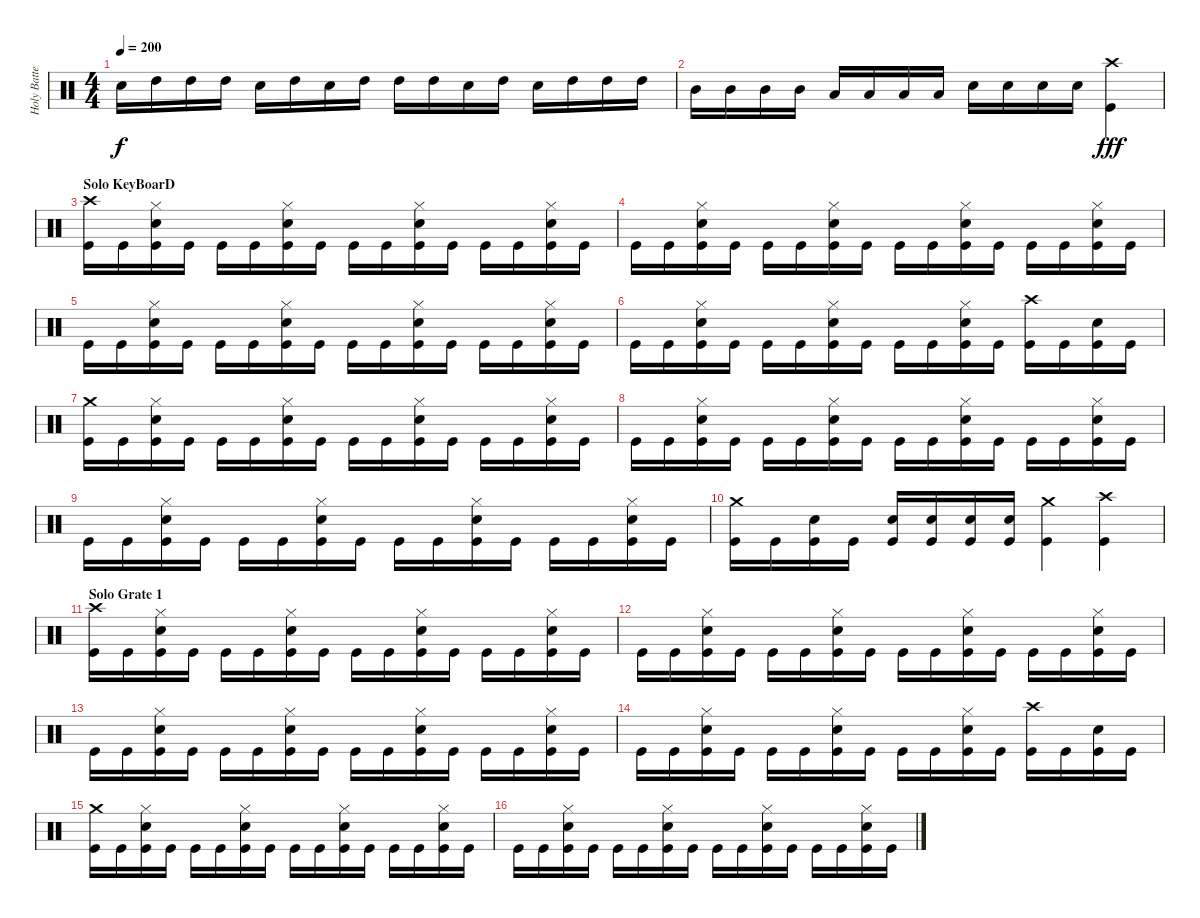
\track ("Holy Batteur" "Holy Batte") {instrument percussion}
\staff {score}
\articulation defaults
\ts (4 4)
\tempo 200
\clef neutral
\ks c "Electric Snare (hit)".16{dy f} "High Tom (hit)".16 "High Tom (hit)".16 "High Tom (hit)".16 "Electric Snare (hit)".16 "High Tom (hit)".16 "Electric Snare (hit)".16 "High Tom (hit)".16 "High Tom (hit)".16 "High Tom (hit)".16 "Electric Snare (hit)".16 "High Tom (hit)".16 "Electric Snare (hit)".16 "High Tom (hit)".16 "High Tom (hit)".16 "High Tom (hit)".16
|
"Mid Tom (hit)".16 "Mid Tom (hit)".16 "Mid Tom (hit)".16 "Mid Tom (hit)".16 "Low Tom (hit)".16 "Low Tom (hit)".16 "Low Tom (hit)".16 "Low Tom (hit)".16 "Electric Snare (hit)".16 "Electric Snare (hit)".16 "Electric Snare (hit)".16 "Electric Snare (hit)".16 ("Crash high (hit)" "Kick (hit)").4{dy fff} |
\section ("" "Solo KeyBoarD")
("Crash high (hit)" "Kick (hit)").16 "Kick (hit)".16 ("Hi-Hat (closed)" "Electric Snare (hit)" "Kick (hit)").16 "Kick (hit)".16 "Kick (hit)".16 "Kick (hit)".16 ("Hi-Hat (closed)" "Electric Snare (hit)" "Kick (hit)").16 "Kick (hit)".16 "Kick (hit)".16 "Kick (hit)".16 ("Hi-Hat (closed)" "Electric Snare (hit)" "Kick (hit)").16 "Kick (hit)".16 "Kick (hit)".16 "Kick (hit)".16 ("Hi-Hat (closed)" "Electric Snare (hit)" "Kick (hit)").16 "Kick (hit)".16 |
"Kick (hit)".16 "Kick (hit)".16 ("Hi-Hat (closed)" "Electric Snare (hit)" "Kick (hit)").16 "Kick (hit)".16 "Kick (hit)".16 "Kick (hit)".16 ("Hi-Hat (closed)" "Electric Snare (hit)" "Kick (hit)").16 "Kick (hit)".16 "Kick (hit)".16 "Kick (hit)".16 ("Hi-Hat (closed)" "Electric Snare (hit)" "Kick (hit)").16 "Kick (hit)".16 "Kick (hit)".16 "Kick (hit)".16 ("Hi-Hat (closed)" "Electric Snare (hit)" "Kick (hit)").16 "Kick (hit)".16 |
"Kick (hit)".16 "Kick (hit)".16 ("Hi-Hat (closed)" "Electric Snare (hit)" "Kick (hit)").16 "Kick (hit)".16 "Kick (hit)".16 "Kick (hit)".16 ("Hi-Hat (closed)" "Electric Snare (hit)" "Kick (hit)").16 "Kick (hit)".16 "Kick (hit)".16 "Kick (hit)".16 ("Hi-Hat (closed)" "Electric Snare (hit)" "Kick (hit)").16 "Kick (hit)".16 "Kick (hit)".16 "Kick (hit)".16 ("Hi-Hat (closed)" "Electric Snare (hit)" "Kick (hit)").16 "Kick (hit)".16 |
"Kick (hit)".16 "Kick (hit)".16 ("Hi-Hat (closed)" "Electric Snare (hit)" "Kick (hit)").16 "Kick (hit)".16 "Kick (hit)".16 "Kick (hit)".16 ("Hi-Hat (closed)" "Electric Snare (hit)" "Kick (hit)").16 "Kick (hit)".16 "Kick (hit)".16 "Kick (hit)".16 ("Hi-Hat (closed)" "Electric Snare (hit)" "Kick (hit)").16 "Kick (hit)".16 ("Crash high (hit)" "Kick (hit)").16 "Kick (hit)".16 ("Electric Snare (hit)" "Kick (hit)").16 "Kick (hit)".16 |
("Crash medium (hit)" "Kick (hit)").16 "Kick (hit)".16 ("Hi-Hat (closed)" "Electric Snare (hit)" "Kick (hit)").16 "Kick (hit)".16 "Kick (hit)".16 "Kick (hit)".16 ("Hi-Hat (closed)" "Electric Snare (hit)" "Kick (hit)").16 "Kick (hit)".16 "Kick (hit)".16 "Kick (hit)".16 ("Hi-Hat (closed)" "Electric Snare (hit)" "Kick (hit)").16 "Kick (hit)".16 "Kick (hit)".16 "Kick (hit)".16 ("Hi-Hat (closed)" "Electric Snare (hit)" "Kick (hit)").16 "Kick (hit)".16 |
"Kick (hit)".16 "Kick (hit)".16 ("Hi-Hat (closed)" "Electric Snare (hit)" "Kick (hit)").16 "Kick (hit)".16 "Kick (hit)".16 "Kick (hit)".16 ("Hi-Hat (closed)" "Electric Snare (hit)" "Kick (hit)").16 "Kick (hit)".16 "Kick (hit)".16 "Kick (hit)".16 ("Hi-Hat (closed)" "Electric Snare (hit)" "Kick (hit)").16 "Kick (hit)".16 "Kick (hit)".16 "Kick (hit)".16 ("Hi-Hat (closed)" "Electric Snare (hit)" "Kick (hit)").16 "Kick (hit)".16 |
"Kick (hit)".16 "Kick (hit)".16 ("Hi-Hat (closed)" "Electric Snare (hit)" "Kick (hit)").16 "Kick (hit)".16 "Kick (hit)".16 "Kick (hit)".16 ("Hi-Hat (closed)" "Electric Snare (hit)" "Kick (hit)").16 "Kick (hit)".16 "Kick (hit)".16 "Kick (hit)".16 ("Hi-Hat (closed)" "Electric Snare (hit)" "Kick (hit)").16 "Kick (hit)".16 "Kick (hit)".16 "Kick (hit)".16 ("Hi-Hat (closed)" "Electric Snare (hit)" "Kick (hit)").16 "Kick (hit)".16 |
("Crash medium (hit)" "Kick (hit)").16 "Kick (hit)".16 ("Electric Snare (hit)" "Kick (hit)").16 "Kick (hit)".16 ("Electric Snare (hit)" "Kick (hit)").16 ("Electric Snare (hit)" "Kick (hit)").16 ("Electric Snare (hit)" "Kick (hit)").16 ("Electric Snare (hit)" "Kick (hit)").16 ("Crash medium (hit)" "Kick (hit)").4 ("Crash high (hit)" "Kick (hit)").4 |
\section ("" "Solo Grate 1")
("Crash high (hit)" "Kick (hit)").16 "Kick (hit)".16 ("Hi-Hat (closed)" "Electric Snare (hit)" "Kick (hit)").16 "Kick (hit)".16 "Kick (hit)".16 "Kick (hit)".16 ("Hi-Hat (closed)" "Electric Snare (hit)" "Kick (hit)").16 "Kick (hit)".16 "Kick (hit)".16 "Kick (hit)".16 ("Hi-Hat (closed)" "Electric Snare (hit)" "Kick (hit)").16 "Kick (hit)".16 "Kick (hit)".16 "Kick (hit)".16 ("Hi-Hat (closed)" "Electric Snare (hit)" "Kick (hit)").16 "Kick (hit)".16 |
"Kick (hit)".16 "Kick (hit)".16 ("Hi-Hat (closed)" "Electric Snare (hit)" "Kick (hit)").16 "Kick (hit)".16 "Kick (hit)".16 "Kick (hit)".16 ("Hi-Hat (closed)" "Electric Snare (hit)" "Kick (hit)").16 "Kick (hit)".16 "Kick (hit)".16 "Kick (hit)".16 ("Hi-Hat (closed)" "Electric Snare (hit)" "Kick (hit)").16 "Kick (hit)".16 "Kick (hit)".16 "Kick (hit)".16 ("Hi-Hat (closed)" "Electric Snare (hit)" "Kick (hit)").16 "Kick (hit)".16 |
"Kick (hit)".16 "Kick (hit)".16 ("Hi-Hat (closed)" "Electric Snare (hit)" "Kick (hit)").16 "Kick (hit)".16 "Kick (hit)".16 "Kick (hit)".16 ("Hi-Hat (closed)" "Electric Snare (hit)" "Kick (hit)").16 "Kick (hit)".16 "Kick (hit)".16 "Kick (hit)".16 ("Hi-Hat (closed)" "Electric Snare (hit)" "Kick (hit)").16 "Kick (hit)".16 "Kick (hit)".16 "Kick (hit)".16 ("Hi-Hat (closed)" "Electric Snare (hit)" "Kick (hit)").16 "Kick (hit)".16 |
"Kick (hit)".16 "Kick (hit)".16 ("Hi-Hat (closed)" "Electric Snare (hit)" "Kick (hit)").16 "Kick (hit)".16 "Kick (hit)".16 "Kick (hit)".16 ("Hi-Hat (closed)" "Electric Snare (hit)" "Kick (hit)").16 "Kick (hit)".16 "Kick (hit)".16 "Kick (hit)".16 ("Hi-Hat (closed)" "Electric Snare (hit)" "Kick (hit)").16 "Kick (hit)".16 ("Crash high (hit)" "Kick (hit)").16 "Kick (hit)".16 ("Electric Snare (hit)" "Kick (hit)").16 "Kick (hit)".16 |
("Crash medium (hit)" "Kick (hit)").16 "Kick (hit)".16 ("Hi-Hat (closed)" "Electric Snare (hit)" "Kick (hit)").16 "Kick (hit)".16 "Kick (hit)".16 "Kick (hit)".16 ("Hi-Hat (closed)" "Electric Snare (hit)" "Kick (hit)").16 "Kick (hit)".16 "Kick (hit)".16 "Kick (hit)".16 ("Hi-Hat (closed)" "Electric Snare (hit)" "Kick (hit)").16 "Kick (hit)".16 "Kick (hit)".16 "Kick (hit)".16 ("Hi-Hat (closed)" "Electric Snare (hit)" "Kick (hit)").16 "Kick (hit)".16 |
"Kick (hit)".16 "Kick (hit)".16 ("Hi-Hat (closed)" "Electric Snare (hit)" "Kick (hit)").16 "Kick (hit)".16 "Kick (hit)".16 "Kick (hit)".16 ("Hi-Hat (closed)" "Electric Snare (hit)" "Kick (hit)").16 "Kick (hit)".16 "Kick (hit)".16 "Kick (hit)".16 ("Hi-Hat (closed)" "Electric Snare (hit)" "Kick (hit)").16 "Kick (hit)".16 "Kick (hit)".16 "Kick (hit)".16 ("Hi-Hat (closed)" "Electric Snare (hit)" "Kick (hit)").16 "Kick (hit)".16
